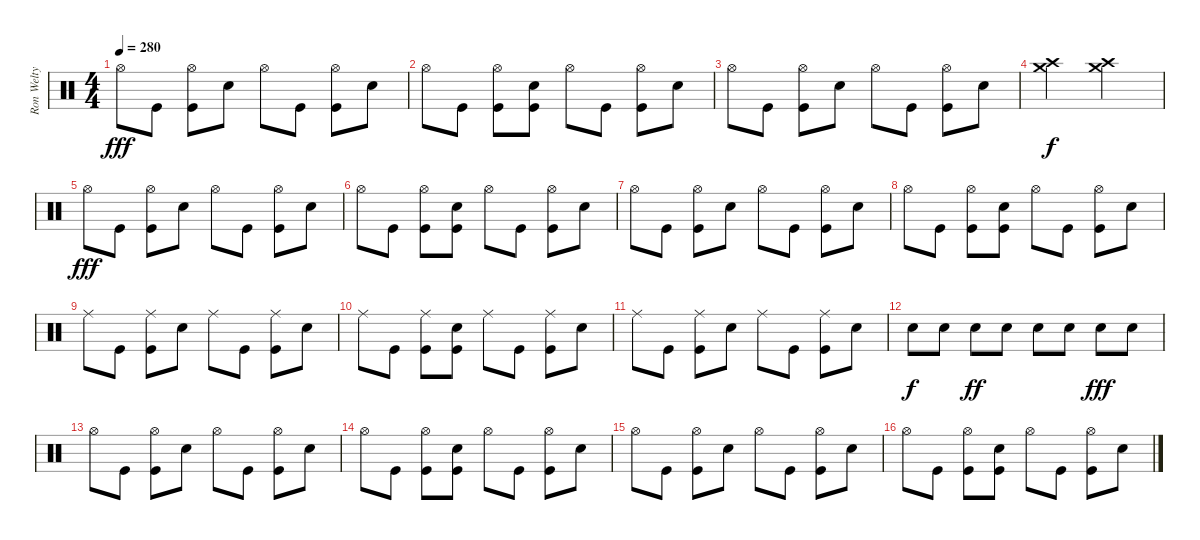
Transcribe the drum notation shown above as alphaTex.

\track ("Ron Welty" "Ron Welty") {instrument percussion}
\staff {score}
\articulation defaults
\ts (4 4)
\tempo 280
\clef neutral
\ks c "Hi-Hat (open)".8{dy fff} "Kick (hit)".8
("Hi-Hat (open)" "Kick (hit)").8 "Snare (hit) 2".8 "Hi-Hat (open)".8 "Kick (hit)".8 ("Hi-Hat (open)" "Kick (hit)").8 "Snare (hit) 2".8 |
"Hi-Hat (open)".8 "Kick (hit)".8 ("Hi-Hat (open)" "Kick (hit)").8 ("Snare (hit) 2" "Kick (hit)").8 "Hi-Hat (open)".8 "Kick (hit)".8 ("Hi-Hat (open)" "Kick (hit)").8 "Snare (hit) 2".8 |
"Hi-Hat (open)".8 "Kick (hit)".8 ("Hi-Hat (open)" "Kick (hit)").8 "Snare (hit) 2".8 "Hi-Hat (open)".8 "Kick (hit)".8 ("Hi-Hat (open)" "Kick (hit)").8 "Snare (hit) 2".8 |
("Crash high (hit)" "Crash medium (hit)").2{dy f} ("Crash high (hit)" "Crash medium (hit)").2 |
"Hi-Hat (open)".8{dy fff} "Kick (hit)".8 ("Hi-Hat (open)" "Kick (hit)").8 "Snare (hit) 2".8 "Hi-Hat (open)".8 "Kick (hit)".8 ("Hi-Hat (open)" "Kick (hit)").8 "Snare (hit) 2".8 |
"Hi-Hat (open)".8 "Kick (hit)".8 ("Hi-Hat (open)" "Kick (hit)").8 ("Snare (hit) 2" "Kick (hit)").8 "Hi-Hat (open)".8 "Kick (hit)".8 ("Hi-Hat (open)" "Kick (hit)").8 "Snare (hit) 2".8 |
"Hi-Hat (open)".8 "Kick (hit)".8 ("Hi-Hat (open)" "Kick (hit)").8 "Snare (hit) 2".8 "Hi-Hat (open)".8 "Kick (hit)".8 ("Hi-Hat (open)" "Kick (hit)").8 "Snare (hit) 2".8 |
"Hi-Hat (open)".8 "Kick (hit)".8 ("Hi-Hat (open)" "Kick (hit)").8 ("Snare (hit) 2" "Kick (hit)").8 "Hi-Hat (open)".8 "Kick (hit)".8 ("Hi-Hat (open)" "Kick (hit)").8 "Snare (hit) 2".8 |
"Ride (middle)".8 "Kick (hit)".8 ("Ride (middle)" "Kick (hit)").8 "Snare (hit) 2".8 "Ride (middle)".8 "Kick (hit)".8 ("Ride (middle)" "Kick (hit)").8 "Snare (hit) 2".8 |
"Ride (middle)".8 "Kick (hit)".8 ("Ride (middle)" "Kick (hit)").8 ("Snare (hit) 2" "Kick (hit)").8 "Ride (middle)".8 "Kick (hit)".8 ("Ride (middle)" "Kick (hit)").8 "Snare (hit) 2".8 |
"Ride (middle)".8 "Kick (hit)".8 ("Ride (middle)" "Kick (hit)").8 "Snare (hit) 2".8 "Ride (middle)".8 "Kick (hit)".8 ("Ride (middle)" "Kick (hit)").8 "Snare (hit) 2".8 |
"Snare (hit) 2".8{dy f} "Snare (hit) 2".8 "Snare (hit) 2".8{dy ff} "Snare (hit) 2".8 "Snare (hit) 2".8 "Snare (hit) 2".8 "Snare (hit) 2".8{dy fff} "Snare (hit) 2".8 |
"Hi-Hat (open)".8 "Kick (hit)".8 ("Hi-Hat (open)" "Kick (hit)").8 "Snare (hit) 2".8 "Hi-Hat (open)".8 "Kick (hit)".8 ("Hi-Hat (open)" "Kick (hit)").8 "Snare (hit) 2".8 |
"Hi-Hat (open)".8 "Kick (hit)".8 ("Hi-Hat (open)" "Kick (hit)").8 ("Snare (hit) 2" "Kick (hit)").8 "Hi-Hat (open)".8 "Kick (hit)".8 ("Hi-Hat (open)" "Kick (hit)").8 "Snare (hit) 2".8 |
"Hi-Hat (open)".8 "Kick (hit)".8 ("Hi-Hat (open)" "Kick (hit)").8 "Snare (hit) 2".8 "Hi-Hat (open)".8 "Kick (hit)".8 ("Hi-Hat (open)" "Kick (hit)").8 "Snare (hit) 2".8 |
"Hi-Hat (open)".8 "Kick (hit)".8 ("Hi-Hat (open)" "Kick (hit)").8 ("Snare (hit) 2" "Kick (hit)").8 "Hi-Hat (open)".8 "Kick (hit)".8 ("Hi-Hat (open)" "Kick (hit)").8 "Snare (hit) 2".8
